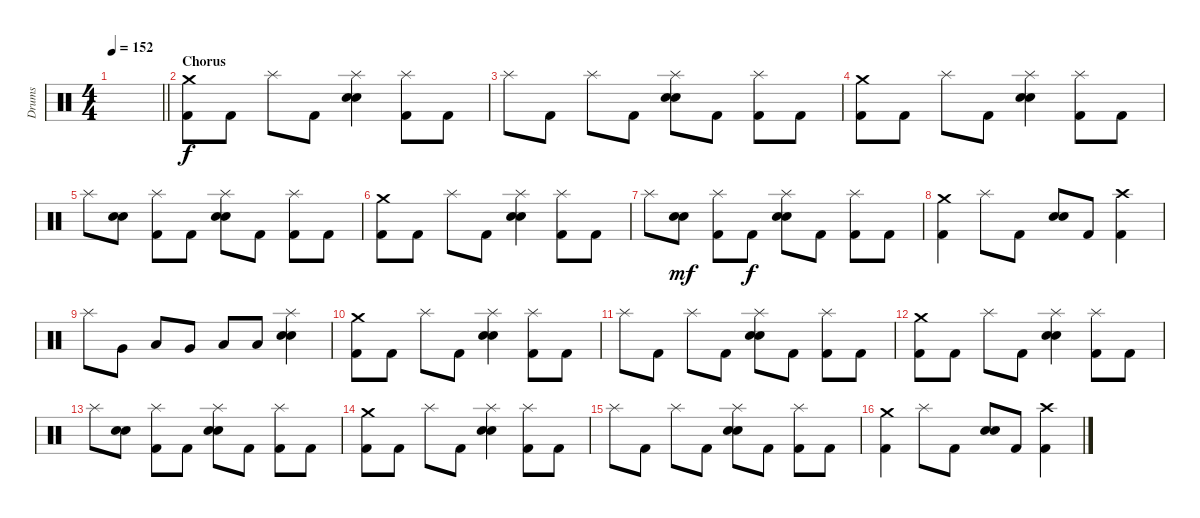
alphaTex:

\track ("Drums" "Drums") {instrument percussion}
\staff {score}
\articulation defaults
\ts (4 4)
\tempo 152
\clef neutral
\barLineRight lightlight
\ks c
|
\section ("" "Chorus")
("Crash medium (hit)" "Kick (hit) 2").8 "Kick (hit) 2".8 "Splash (hit)".8 "Kick (hit) 2".8 ("Splash (hit)" "Electric Snare (hit)" "Snare (hit) 2").4 ("Splash (hit)" "Kick (hit) 2").8 "Kick (hit) 2".8 |
"Splash (hit)".8 "Kick (hit) 2".8 "Splash (hit)".8 "Kick (hit) 2".8 ("Splash (hit)" "Electric Snare (hit)" "Snare (hit) 2").8 "Kick (hit) 2".8 ("Splash (hit)" "Kick (hit) 2").8 "Kick (hit) 2".8 |
("Crash medium (hit)" "Kick (hit) 2").8 "Kick (hit) 2".8 "Splash (hit)".8 "Kick (hit) 2".8 ("Splash (hit)" "Electric Snare (hit)" "Snare (hit) 2").4 ("Splash (hit)" "Kick (hit) 2").8 "Kick (hit) 2".8 |
"Splash (hit)".8 ("Electric Snare (hit)" "Snare (hit) 2").8 ("Splash (hit)" "Kick (hit) 2").8 "Kick (hit) 2".8 ("Splash (hit)" "Electric Snare (hit)" "Snare (hit) 2").8 "Kick (hit) 2".8 ("Splash (hit)" "Kick (hit) 2").8 "Kick (hit) 2".8 |
("Crash medium (hit)" "Kick (hit) 2").8 "Kick (hit) 2".8 "Splash (hit)".8 "Kick (hit) 2".8 ("Splash (hit)" "Electric Snare (hit)" "Snare (hit) 2").4 ("Splash (hit)" "Kick (hit) 2").8 "Kick (hit) 2".8 |
"Splash (hit)".8 ("Electric Snare (hit)" "Snare (hit) 2").8{dy mf} ("Splash (hit)" "Kick (hit) 2").8 "Kick (hit) 2".8{dy f} ("Splash (hit)" "Electric Snare (hit)" "Snare (hit) 2").8 "Kick (hit) 2".8 ("Splash (hit)" "Kick (hit) 2").8 "Kick (hit) 2".8 |
("Crash medium (hit)" "Kick (hit) 2").4 "Splash (hit)".8 "Kick (hit) 2".8 ("Electric Snare (hit)" "Snare (hit) 2").8 "Kick (hit) 2".8 ("Crash high (hit)" "Kick (hit) 2").4 |
"Splash (hit)".8 "Very Low Tom (hit)".8 "Low Tom (hit)".8 "Very Low Tom (hit)".8 "Low Tom (hit)".8 "Low Tom (hit)".8 ("Splash (hit)" "Electric Snare (hit)" "Snare (hit) 2").4 |
("Crash medium (hit)" "Kick (hit) 2").8 "Kick (hit) 2".8 "Splash (hit)".8 "Kick (hit) 2".8 ("Splash (hit)" "Electric Snare (hit)" "Snare (hit) 2").4 ("Splash (hit)" "Kick (hit) 2").8 "Kick (hit) 2".8 |
"Splash (hit)".8 "Kick (hit) 2".8 "Splash (hit)".8 "Kick (hit) 2".8 ("Splash (hit)" "Electric Snare (hit)" "Snare (hit) 2").8 "Kick (hit) 2".8 ("Splash (hit)" "Kick (hit) 2").8 "Kick (hit) 2".8 |
("Crash medium (hit)" "Kick (hit) 2").8 "Kick (hit) 2".8 "Splash (hit)".8 "Kick (hit) 2".8 ("Splash (hit)" "Electric Snare (hit)" "Snare (hit) 2").4 ("Splash (hit)" "Kick (hit) 2").8 "Kick (hit) 2".8 |
"Splash (hit)".8 ("Electric Snare (hit)" "Snare (hit) 2").8 ("Splash (hit)" "Kick (hit) 2").8 "Kick (hit) 2".8 ("Splash (hit)" "Electric Snare (hit)" "Snare (hit) 2").8 "Kick (hit) 2".8 ("Splash (hit)" "Kick (hit) 2").8 "Kick (hit) 2".8 |
("Crash medium (hit)" "Kick (hit) 2").8 "Kick (hit) 2".8 "Splash (hit)".8 "Kick (hit) 2".8 ("Splash (hit)" "Electric Snare (hit)" "Snare (hit) 2").4 ("Splash (hit)" "Kick (hit) 2").8 "Kick (hit) 2".8 |
"Splash (hit)".8 "Kick (hit) 2".8 "Splash (hit)".8 "Kick (hit) 2".8 ("Splash (hit)" "Electric Snare (hit)" "Snare (hit) 2").8 "Kick (hit) 2".8 ("Splash (hit)" "Kick (hit) 2").8 "Kick (hit) 2".8 |
("Crash medium (hit)" "Kick (hit) 2").4 "Splash (hit)".8 "Kick (hit) 2".8 ("Electric Snare (hit)" "Snare (hit) 2").8 "Kick (hit) 2".8 ("Crash high (hit)" "Kick (hit) 2").4
